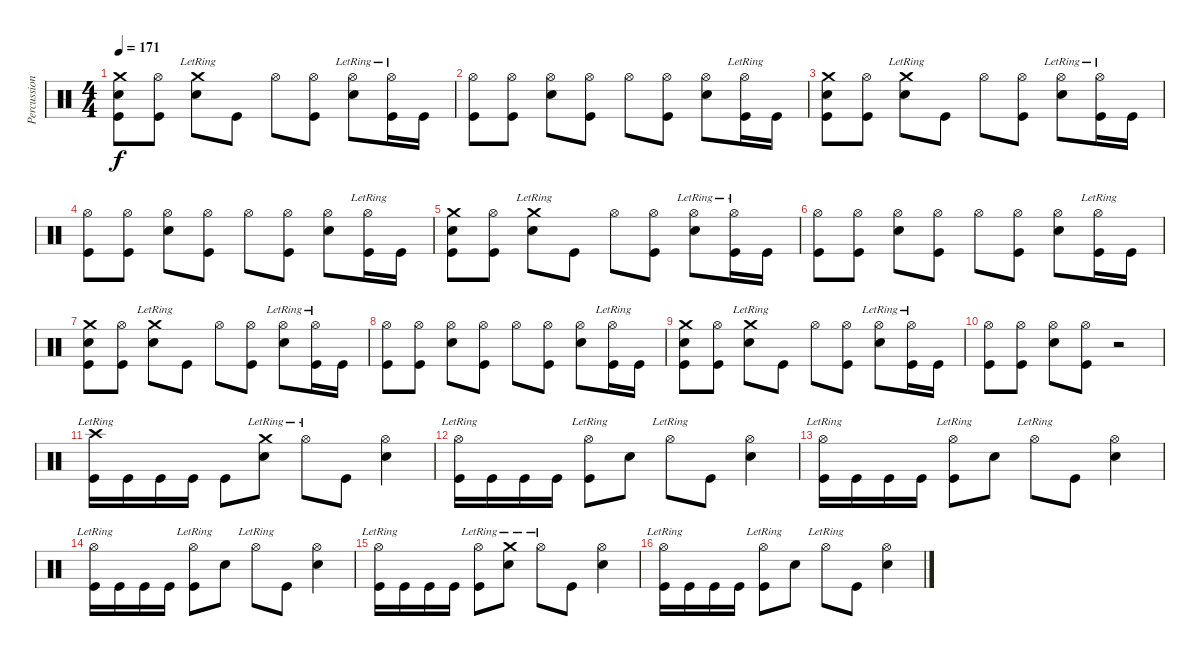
\track ("Percussions" "Percussion") {instrument percussion}
\staff {score}
\articulation defaults
\ts (4 4)
\tempo 171
\clef neutral
\ks c
("Crash medium (hit)" "Snare (hit) 2" "Kick (hit)").8{dy f} ("Hi-Hat (open)" "Kick (hit)").8 ("Crash medium (hit)"{lr} "Snare (hit) 2").8 "Kick (hit)".8 "Hi-Hat (open)".8 ("Hi-Hat (open)" "Kick (hit)").8 ("Hi-Hat (open)"{lr} "Snare (hit) 2").8 ("Hi-Hat (open)"{lr} "Kick (hit)").16 "Kick (hit)".16 |
("Hi-Hat (open)" "Kick (hit)").8 ("Hi-Hat (open)" "Kick (hit)").8 ("Hi-Hat (open)" "Snare (hit) 2").8 ("Hi-Hat (open)" "Kick (hit)").8 "Hi-Hat (open)".8 ("Hi-Hat (open)" "Kick (hit)").8 ("Hi-Hat (open)" "Snare (hit) 2").8 ("Hi-Hat (open)"{lr} "Kick (hit)").16 "Kick (hit)".16 |
("Crash medium (hit)" "Snare (hit) 2" "Kick (hit)").8 ("Hi-Hat (open)" "Kick (hit)").8 ("Crash medium (hit)"{lr} "Snare (hit) 2").8 "Kick (hit)".8 "Hi-Hat (open)".8 ("Hi-Hat (open)" "Kick (hit)").8 ("Hi-Hat (open)"{lr} "Snare (hit) 2").8 ("Hi-Hat (open)"{lr} "Kick (hit)").16 "Kick (hit)".16 |
("Hi-Hat (open)" "Kick (hit)").8 ("Hi-Hat (open)" "Kick (hit)").8 ("Hi-Hat (open)" "Snare (hit) 2").8 ("Hi-Hat (open)" "Kick (hit)").8 "Hi-Hat (open)".8 ("Hi-Hat (open)" "Kick (hit)").8 ("Hi-Hat (open)" "Snare (hit) 2").8 ("Hi-Hat (open)"{lr} "Kick (hit)").16 "Kick (hit)".16 |
("Crash medium (hit)" "Snare (hit) 2" "Kick (hit)").8 ("Hi-Hat (open)" "Kick (hit)").8 ("Crash medium (hit)"{lr} "Snare (hit) 2").8 "Kick (hit)".8 "Hi-Hat (open)".8 ("Hi-Hat (open)" "Kick (hit)").8 ("Hi-Hat (open)"{lr} "Snare (hit) 2").8 ("Hi-Hat (open)"{lr} "Kick (hit)").16 "Kick (hit)".16 |
("Hi-Hat (open)" "Kick (hit)").8 ("Hi-Hat (open)" "Kick (hit)").8 ("Hi-Hat (open)" "Snare (hit) 2").8 ("Hi-Hat (open)" "Kick (hit)").8 "Hi-Hat (open)".8 ("Hi-Hat (open)" "Kick (hit)").8 ("Hi-Hat (open)" "Snare (hit) 2").8 ("Hi-Hat (open)"{lr} "Kick (hit)").16 "Kick (hit)".16 |
("Crash medium (hit)" "Snare (hit) 2" "Kick (hit)").8 ("Hi-Hat (open)" "Kick (hit)").8 ("Crash medium (hit)"{lr} "Snare (hit) 2").8 "Kick (hit)".8 "Hi-Hat (open)".8 ("Hi-Hat (open)" "Kick (hit)").8 ("Hi-Hat (open)"{lr} "Snare (hit) 2").8 ("Hi-Hat (open)"{lr} "Kick (hit)").16 "Kick (hit)".16 |
("Hi-Hat (open)" "Kick (hit)").8 ("Hi-Hat (open)" "Kick (hit)").8 ("Hi-Hat (open)" "Snare (hit) 2").8 ("Hi-Hat (open)" "Kick (hit)").8 "Hi-Hat (open)".8 ("Hi-Hat (open)" "Kick (hit)").8 ("Hi-Hat (open)" "Snare (hit) 2").8 ("Hi-Hat (open)"{lr} "Kick (hit)").16 "Kick (hit)".16 |
("Crash medium (hit)" "Snare (hit) 2" "Kick (hit)").8 ("Hi-Hat (open)" "Kick (hit)").8 ("Crash medium (hit)"{lr} "Snare (hit) 2").8 "Kick (hit)".8 "Hi-Hat (open)".8 ("Hi-Hat (open)" "Kick (hit)").8 ("Hi-Hat (open)"{lr} "Snare (hit) 2").8 ("Hi-Hat (open)"{lr} "Kick (hit)").16 "Kick (hit)".16 |
("Hi-Hat (open)" "Kick (hit)").8 ("Hi-Hat (open)" "Kick (hit)").8 ("Hi-Hat (open)" "Snare (hit) 2").8 ("Hi-Hat (open)" "Kick (hit)").8 r.2 |
("Crash high (hit)"{lr} "Kick (hit)").16 "Kick (hit)".16 "Kick (hit)".16 "Kick (hit)".16 "Kick (hit)".8 ("Crash medium (hit)"{lr} "Snare (hit) 2").8 "Hi-Hat (open)"{lr}.8 "Kick (hit)".8 ("Hi-Hat (open)" "Snare (hit) 2").4 |
("Hi-Hat (open)"{lr} "Kick (hit)").16 "Kick (hit)".16 "Kick (hit)".16 "Kick (hit)".16 ("Hi-Hat (open)"{lr} "Kick (hit)").8 "Snare (hit) 2".8 "Hi-Hat (open)"{lr}.8 "Kick (hit)".8 ("Hi-Hat (open)" "Snare (hit) 2").4 |
("Hi-Hat (open)"{lr} "Kick (hit)").16 "Kick (hit)".16 "Kick (hit)".16 "Kick (hit)".16 ("Hi-Hat (open)"{lr} "Kick (hit)").8 "Snare (hit) 2".8 "Hi-Hat (open)"{lr}.8 "Kick (hit)".8 ("Hi-Hat (open)" "Snare (hit) 2").4 |
("Hi-Hat (open)"{lr} "Kick (hit)").16 "Kick (hit)".16 "Kick (hit)".16 "Kick (hit)".16 ("Hi-Hat (open)"{lr} "Kick (hit)").8 "Snare (hit) 2".8 "Hi-Hat (open)"{lr}.8 "Kick (hit)".8 ("Hi-Hat (open)" "Snare (hit) 2").4 |
("Hi-Hat (open)"{lr} "Kick (hit)").16 "Kick (hit)".16 "Kick (hit)".16 "Kick (hit)".16 ("Hi-Hat (open)"{lr} "Kick (hit)").8 ("Crash medium (hit)"{lr} "Snare (hit) 2").8 "Hi-Hat (open)"{lr}.8 "Kick (hit)".8 ("Hi-Hat (open)" "Snare (hit) 2").4 |
("Hi-Hat (open)"{lr} "Kick (hit)").16 "Kick (hit)".16 "Kick (hit)".16 "Kick (hit)".16 ("Hi-Hat (open)"{lr} "Kick (hit)").8 "Snare (hit) 2".8 "Hi-Hat (open)"{lr}.8 "Kick (hit)".8 ("Hi-Hat (open)" "Snare (hit) 2").4
